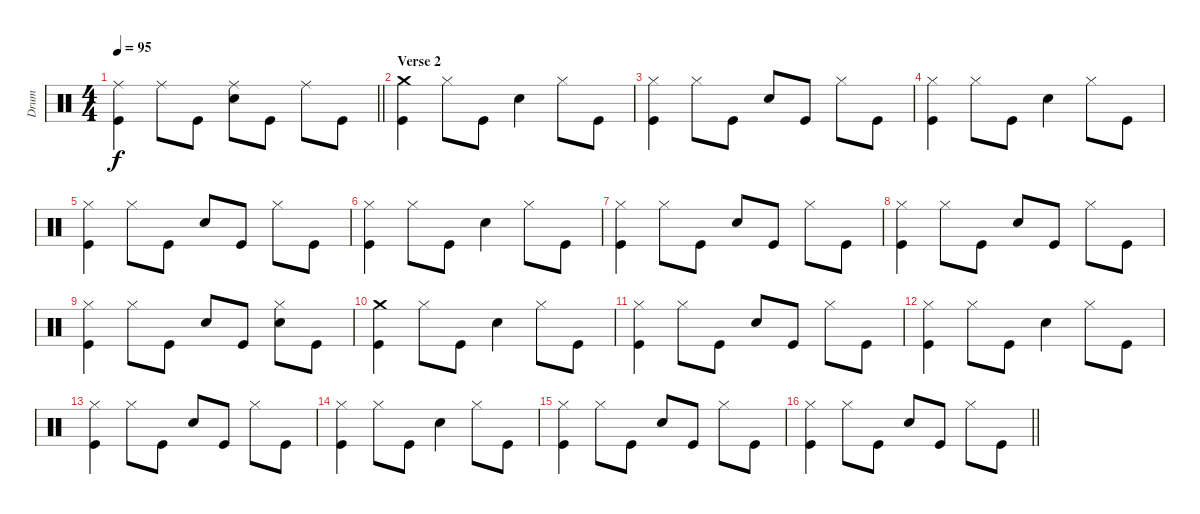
\track ("Drum" "Drum") {instrument percussion}
\staff {score}
\articulation defaults
\ts (4 4)
\tempo 95
\clef neutral
\barLineRight lightlight
\ks c
("Ride (middle)" "Kick (hit)").4{dy f} "Ride (middle)".8 "Kick (hit)".8 ("Ride (middle)" "Electric Snare (hit)").8 "Kick (hit)".8 "Ride (middle)".8 "Kick (hit)".8 |
\section ("" "Verse 2")
("Crash medium (hit)" "Kick (hit)").4 "Hi-Hat (closed)".8 "Kick (hit)".8 "Electric Snare (hit)".4 "Hi-Hat (closed)".8 "Kick (hit)".8 |
("Hi-Hat (closed)" "Kick (hit)").4 "Hi-Hat (closed)".8 "Kick (hit)".8 "Electric Snare (hit)".8 "Kick (hit)".8 "Hi-Hat (closed)".8 "Kick (hit)".8 |
("Hi-Hat (closed)" "Kick (hit)").4 "Hi-Hat (closed)".8 "Kick (hit)".8 "Electric Snare (hit)".4 "Hi-Hat (closed)".8 "Kick (hit)".8 |
("Hi-Hat (closed)" "Kick (hit)").4 "Hi-Hat (closed)".8 "Kick (hit)".8 "Electric Snare (hit)".8 "Kick (hit)".8 "Hi-Hat (closed)".8 "Kick (hit)".8 |
("Hi-Hat (closed)" "Kick (hit)").4 "Hi-Hat (closed)".8 "Kick (hit)".8 "Electric Snare (hit)".4 "Hi-Hat (closed)".8 "Kick (hit)".8 |
("Hi-Hat (closed)" "Kick (hit)").4 "Hi-Hat (closed)".8 "Kick (hit)".8 "Electric Snare (hit)".8 "Kick (hit)".8 "Hi-Hat (closed)".8 "Kick (hit)".8 |
("Hi-Hat (closed)" "Kick (hit)").4 "Hi-Hat (closed)".8 "Kick (hit)".8 "Electric Snare (hit)".8 "Kick (hit)".8 "Hi-Hat (closed)".8 "Kick (hit)".8 |
("Hi-Hat (closed)" "Kick (hit)").4 "Hi-Hat (closed)".8 "Kick (hit)".8 "Electric Snare (hit)".8 "Kick (hit)".8 ("Hi-Hat (closed)" "Electric Snare (hit)").8 "Kick (hit)".8 |
("Crash medium (hit)" "Kick (hit)").4 "Hi-Hat (closed)".8 "Kick (hit)".8 "Electric Snare (hit)".4 "Hi-Hat (closed)".8 "Kick (hit)".8 |
("Hi-Hat (closed)" "Kick (hit)").4 "Hi-Hat (closed)".8 "Kick (hit)".8 "Electric Snare (hit)".8 "Kick (hit)".8 "Hi-Hat (closed)".8 "Kick (hit)".8 |
("Hi-Hat (closed)" "Kick (hit)").4 "Hi-Hat (closed)".8 "Kick (hit)".8 "Electric Snare (hit)".4 "Hi-Hat (closed)".8 "Kick (hit)".8 |
("Hi-Hat (closed)" "Kick (hit)").4 "Hi-Hat (closed)".8 "Kick (hit)".8 "Electric Snare (hit)".8 "Kick (hit)".8 "Hi-Hat (closed)".8 "Kick (hit)".8 |
("Hi-Hat (closed)" "Kick (hit)").4 "Hi-Hat (closed)".8 "Kick (hit)".8 "Electric Snare (hit)".4 "Hi-Hat (closed)".8 "Kick (hit)".8 |
("Hi-Hat (closed)" "Kick (hit)").4 "Hi-Hat (closed)".8 "Kick (hit)".8 "Electric Snare (hit)".8 "Kick (hit)".8 "Hi-Hat (closed)".8 "Kick (hit)".8 |
\barLineRight lightlight
("Hi-Hat (closed)" "Kick (hit)").4 "Hi-Hat (closed)".8 "Kick (hit)".8 "Electric Snare (hit)".8 "Kick (hit)".8 "Hi-Hat (closed)".8 "Kick (hit)".8
